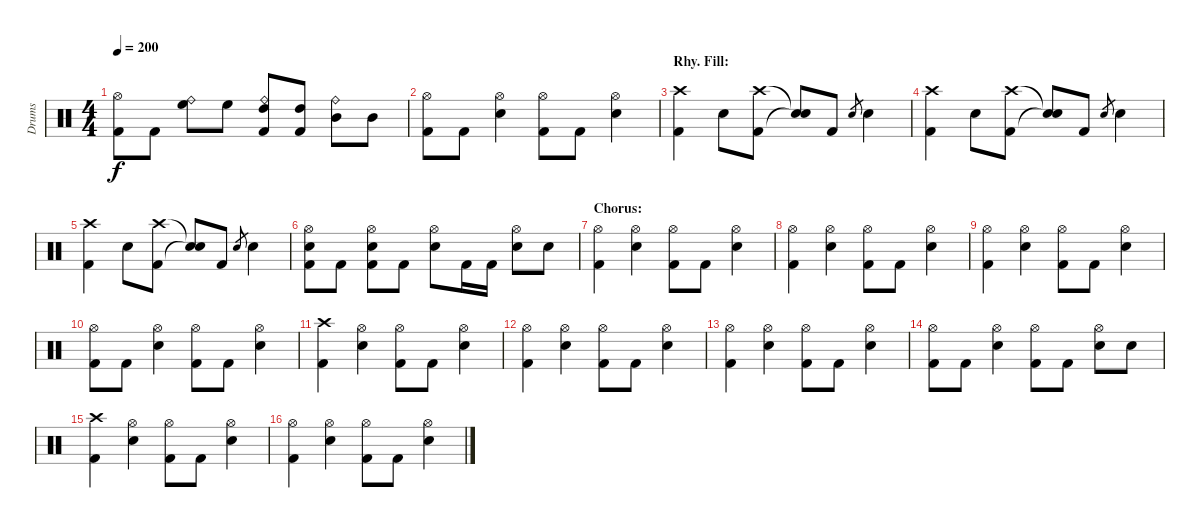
\track ("Drums" "Drums") {instrument percussion}
\staff {score}
\articulation defaults
\ts (4 4)
\tempo 200
\clef neutral
\ks c
("Hi-Hat (open)" "Kick (hit) 2").8{dy f} "Kick (hit) 2".8 ("Ride (bell)" "High Floor Tom (hit)").8 "High Floor Tom (hit)".8 ("Ride (bell)" "High Tom (hit)" "Kick (hit) 2").8 ("High Tom (hit)" "Kick (hit) 2").8 ("Ride (bell)" "Mid Tom (hit)").8 "Mid Tom (hit)".8 |
("Hi-Hat (open)" "Kick (hit) 2").8 "Kick (hit) 2".8 ("Hi-Hat (open)" "Electric Snare (hit)").4 ("Hi-Hat (open)" "Kick (hit) 2").8 "Kick (hit) 2".8 ("Hi-Hat (open)" "Electric Snare (hit)").4 |
\section ("" "Rhy. Fill:")
("Crash high (hit)" "Kick (hit) 2").4 "Electric Snare (hit)".8 ("Crash high (hit)" "Kick (hit) 2").8 ("Snare (hit)"{t} "Snare (hit)"{t}).8 "Kick (hit) 2".8 "Electric Snare (hit)".8{gr} "Electric Snare (hit)".4 |
("Crash high (hit)" "Kick (hit) 2").4 "Electric Snare (hit)".8 ("Crash high (hit)" "Kick (hit) 2").8 ("Snare (hit)"{t} "Snare (hit)"{t}).8 "Kick (hit) 2".8 "Electric Snare (hit)".8{gr} "Electric Snare (hit)".4 |
("Crash high (hit)" "Kick (hit) 2").4 "Electric Snare (hit)".8 ("Crash high (hit)" "Kick (hit) 2").8 ("Snare (hit)"{t} "Snare (hit)"{t}).8 "Kick (hit) 2".8 "Electric Snare (hit)".8{gr} "Electric Snare (hit)".4 |
("Hi-Hat (open)" "Electric Snare (hit)" "Kick (hit) 2").8 "Kick (hit) 2".8 ("Hi-Hat (open)" "Electric Snare (hit)" "Kick (hit) 2").8 "Kick (hit) 2".8 ("Hi-Hat (open)" "Electric Snare (hit)").8 "Kick (hit) 2".16 "Kick (hit) 2".16 ("Hi-Hat (open)" "Electric Snare (hit)").8 "Electric Snare (hit)".8 |
\section ("" "Chorus:")
("Hi-Hat (open)" "Kick (hit) 2").4 ("Hi-Hat (open)" "Electric Snare (hit)").4 ("Hi-Hat (open)" "Kick (hit) 2").8 "Kick (hit) 2".8 ("Hi-Hat (open)" "Electric Snare (hit)").4 |
("Hi-Hat (open)" "Kick (hit) 2").4 ("Hi-Hat (open)" "Electric Snare (hit)").4 ("Hi-Hat (open)" "Kick (hit) 2").8 "Kick (hit) 2".8 ("Hi-Hat (open)" "Electric Snare (hit)").4 |
("Hi-Hat (open)" "Kick (hit) 2").4 ("Hi-Hat (open)" "Electric Snare (hit)").4 ("Hi-Hat (open)" "Kick (hit) 2").8 "Kick (hit) 2".8 ("Hi-Hat (open)" "Electric Snare (hit)").4 |
("Hi-Hat (open)" "Kick (hit) 2").8 "Kick (hit) 2".8 ("Hi-Hat (open)" "Electric Snare (hit)").4 ("Hi-Hat (open)" "Kick (hit) 2").8 "Kick (hit) 2".8 ("Hi-Hat (open)" "Electric Snare (hit)").4 |
("Crash high (hit)" "Kick (hit) 2").4 ("Hi-Hat (open)" "Electric Snare (hit)").4 ("Hi-Hat (open)" "Kick (hit) 2").8 "Kick (hit) 2".8 ("Hi-Hat (open)" "Electric Snare (hit)").4 |
("Hi-Hat (open)" "Kick (hit) 2").4 ("Hi-Hat (open)" "Electric Snare (hit)").4 ("Hi-Hat (open)" "Kick (hit) 2").8 "Kick (hit) 2".8 ("Hi-Hat (open)" "Electric Snare (hit)").4 |
("Hi-Hat (open)" "Kick (hit) 2").4 ("Hi-Hat (open)" "Electric Snare (hit)").4 ("Hi-Hat (open)" "Kick (hit) 2").8 "Kick (hit) 2".8 ("Hi-Hat (open)" "Electric Snare (hit)").4 |
("Hi-Hat (open)" "Kick (hit) 2").8 "Kick (hit) 2".8 ("Hi-Hat (open)" "Electric Snare (hit)").4 ("Hi-Hat (open)" "Kick (hit) 2").8 "Kick (hit) 2".8 ("Hi-Hat (open)" "Electric Snare (hit)").8 "Electric Snare (hit)".8 |
("Crash high (hit)" "Kick (hit) 2").4 ("Hi-Hat (open)" "Electric Snare (hit)").4 ("Hi-Hat (open)" "Kick (hit) 2").8 "Kick (hit) 2".8 ("Hi-Hat (open)" "Electric Snare (hit)").4 |
("Hi-Hat (open)" "Kick (hit) 2").4 ("Hi-Hat (open)" "Electric Snare (hit)").4 ("Hi-Hat (open)" "Kick (hit) 2").8 "Kick (hit) 2".8 ("Hi-Hat (open)" "Electric Snare (hit)").4
